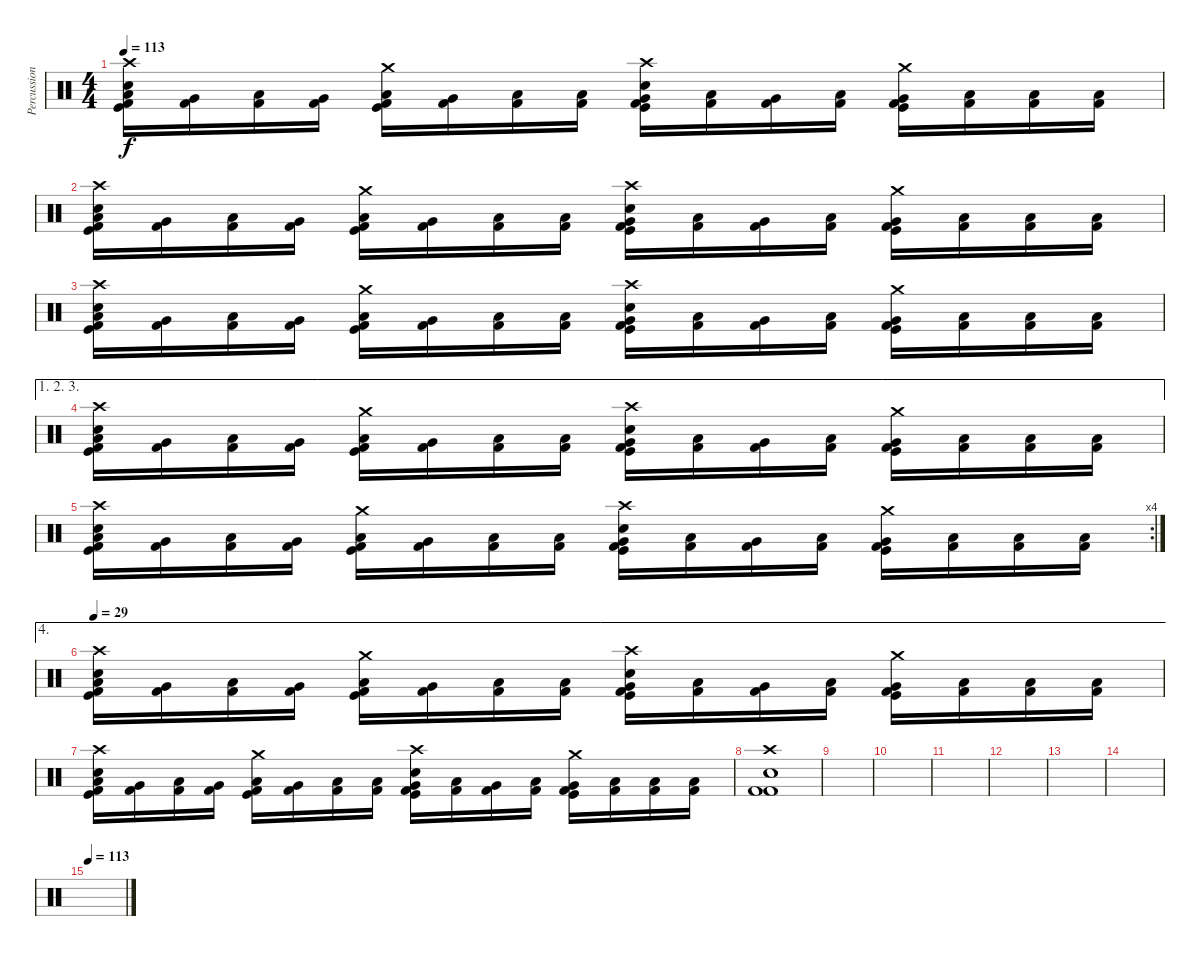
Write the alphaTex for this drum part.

\track ("Percussion" "Percussion") {instrument percussion}
\staff {score}
\articulation defaults
\ts (4 4)
\tempo 113
\clef neutral
\ks c
("Crash high (hit)" "Kick (hit)" "Snare (hit) 2" "Low Floor Tom (hit)" "Kick (hit) 2").16{dy f} ("Very Low Tom (hit)" "Kick (hit) 2").16 ("Low Tom (hit)" "Kick (hit) 2").16 ("Very Low Tom (hit)" "Kick (hit) 2").16 ("Crash medium (hit)" "Kick (hit)" "Low Floor Tom (hit)" "Kick (hit) 2").16 ("Very Low Tom (hit)" "Kick (hit) 2").16 ("Low Floor Tom (hit)" "Kick (hit) 2").16 ("Low Tom (hit)" "Kick (hit) 2").16 ("Crash high (hit)" "Kick (hit)" "Snare (hit) 2" "Very Low Tom (hit)" "Kick (hit) 2").16 ("Low Floor Tom (hit)" "Kick (hit) 2").16 ("Very Low Tom (hit)" "Kick (hit) 2").16 ("Low Floor Tom (hit)" "Kick (hit) 2").16 ("Crash medium (hit)" "Kick (hit)" "Very Low Tom (hit)" "Kick (hit) 2").16 ("Low Floor Tom (hit)" "Kick (hit) 2").16 ("Low Tom (hit)" "Kick (hit) 2").16 ("Low Floor Tom (hit)" "Kick (hit) 2").16 |
("Crash high (hit)" "Kick (hit)" "Snare (hit) 2" "Low Floor Tom (hit)" "Kick (hit) 2").16 ("Very Low Tom (hit)" "Kick (hit) 2").16 ("Low Tom (hit)" "Kick (hit) 2").16 ("Very Low Tom (hit)" "Kick (hit) 2").16 ("Crash medium (hit)" "Kick (hit)" "Low Floor Tom (hit)" "Kick (hit) 2").16 ("Very Low Tom (hit)" "Kick (hit) 2").16 ("Low Floor Tom (hit)" "Kick (hit) 2").16 ("Low Tom (hit)" "Kick (hit) 2").16 ("Crash high (hit)" "Kick (hit)" "Snare (hit) 2" "Very Low Tom (hit)" "Kick (hit) 2").16 ("Low Floor Tom (hit)" "Kick (hit) 2").16 ("Very Low Tom (hit)" "Kick (hit) 2").16 ("Low Floor Tom (hit)" "Kick (hit) 2").16 ("Crash medium (hit)" "Kick (hit)" "Very Low Tom (hit)" "Kick (hit) 2").16 ("Low Floor Tom (hit)" "Kick (hit) 2").16 ("Low Tom (hit)" "Kick (hit) 2").16 ("Low Floor Tom (hit)" "Kick (hit) 2").16 |
("Crash high (hit)" "Kick (hit)" "Snare (hit) 2" "Low Floor Tom (hit)" "Kick (hit) 2").16 ("Very Low Tom (hit)" "Kick (hit) 2").16 ("Low Tom (hit)" "Kick (hit) 2").16 ("Very Low Tom (hit)" "Kick (hit) 2").16 ("Crash medium (hit)" "Kick (hit)" "Low Floor Tom (hit)" "Kick (hit) 2").16 ("Very Low Tom (hit)" "Kick (hit) 2").16 ("Low Floor Tom (hit)" "Kick (hit) 2").16 ("Low Tom (hit)" "Kick (hit) 2").16 ("Crash high (hit)" "Kick (hit)" "Snare (hit) 2" "Very Low Tom (hit)" "Kick (hit) 2").16 ("Low Floor Tom (hit)" "Kick (hit) 2").16 ("Very Low Tom (hit)" "Kick (hit) 2").16 ("Low Floor Tom (hit)" "Kick (hit) 2").16 ("Crash medium (hit)" "Kick (hit)" "Very Low Tom (hit)" "Kick (hit) 2").16 ("Low Floor Tom (hit)" "Kick (hit) 2").16 ("Low Tom (hit)" "Kick (hit) 2").16 ("Low Floor Tom (hit)" "Kick (hit) 2").16 |
\ae (1 2 3)
("Crash high (hit)" "Kick (hit)" "Snare (hit) 2" "Low Floor Tom (hit)" "Kick (hit) 2").16 ("Very Low Tom (hit)" "Kick (hit) 2").16 ("Low Tom (hit)" "Kick (hit) 2").16 ("Very Low Tom (hit)" "Kick (hit) 2").16 ("Crash medium (hit)" "Kick (hit)" "Low Floor Tom (hit)" "Kick (hit) 2").16 ("Very Low Tom (hit)" "Kick (hit) 2").16 ("Low Floor Tom (hit)" "Kick (hit) 2").16 ("Low Tom (hit)" "Kick (hit) 2").16 ("Crash high (hit)" "Kick (hit)" "Snare (hit) 2" "Very Low Tom (hit)" "Kick (hit) 2").16 ("Low Floor Tom (hit)" "Kick (hit) 2").16 ("Very Low Tom (hit)" "Kick (hit) 2").16 ("Low Floor Tom (hit)" "Kick (hit) 2").16 ("Crash medium (hit)" "Kick (hit)" "Very Low Tom (hit)" "Kick (hit) 2").16 ("Low Floor Tom (hit)" "Kick (hit) 2").16 ("Low Tom (hit)" "Kick (hit) 2").16 ("Low Floor Tom (hit)" "Kick (hit) 2").16 |
\rc 4
("Crash high (hit)" "Kick (hit)" "Snare (hit) 2" "Low Floor Tom (hit)" "Kick (hit) 2").16 ("Very Low Tom (hit)" "Kick (hit) 2").16 ("Low Tom (hit)" "Kick (hit) 2").16 ("Very Low Tom (hit)" "Kick (hit) 2").16 ("Crash medium (hit)" "Kick (hit)" "Low Floor Tom (hit)" "Kick (hit) 2").16 ("Very Low Tom (hit)" "Kick (hit) 2").16 ("Low Floor Tom (hit)" "Kick (hit) 2").16 ("Low Tom (hit)" "Kick (hit) 2").16 ("Crash high (hit)" "Kick (hit)" "Snare (hit) 2" "Very Low Tom (hit)" "Kick (hit) 2").16 ("Low Floor Tom (hit)" "Kick (hit) 2").16 ("Very Low Tom (hit)" "Kick (hit) 2").16 ("Low Floor Tom (hit)" "Kick (hit) 2").16 ("Crash medium (hit)" "Kick (hit)" "Very Low Tom (hit)" "Kick (hit) 2").16 ("Low Floor Tom (hit)" "Kick (hit) 2").16 ("Low Tom (hit)" "Kick (hit) 2").16 ("Low Floor Tom (hit)" "Kick (hit) 2").16 |
\ae 4
\tempo 29
("Crash high (hit)" "Kick (hit)" "Snare (hit) 2" "Low Floor Tom (hit)" "Kick (hit) 2").16 ("Very Low Tom (hit)" "Kick (hit) 2").16 ("Low Tom (hit)" "Kick (hit) 2").16 ("Very Low Tom (hit)" "Kick (hit) 2").16 ("Crash medium (hit)" "Kick (hit)" "Low Floor Tom (hit)" "Kick (hit) 2").16 ("Very Low Tom (hit)" "Kick (hit) 2").16 ("Low Floor Tom (hit)" "Kick (hit) 2").16 ("Low Tom (hit)" "Kick (hit) 2").16 ("Crash high (hit)" "Kick (hit)" "Snare (hit) 2" "Very Low Tom (hit)" "Kick (hit) 2").16 ("Low Floor Tom (hit)" "Kick (hit) 2").16 ("Very Low Tom (hit)" "Kick (hit) 2").16 ("Low Floor Tom (hit)" "Kick (hit) 2").16 ("Crash medium (hit)" "Kick (hit)" "Very Low Tom (hit)" "Kick (hit) 2").16 ("Low Floor Tom (hit)" "Kick (hit) 2").16 ("Low Tom (hit)" "Kick (hit) 2").16 ("Low Floor Tom (hit)" "Kick (hit) 2").16 |
("Crash high (hit)" "Kick (hit)" "Snare (hit) 2" "Low Floor Tom (hit)" "Kick (hit) 2").16 ("Very Low Tom (hit)" "Kick (hit) 2").16 ("Low Tom (hit)" "Kick (hit) 2").16 ("Very Low Tom (hit)" "Kick (hit) 2").16 ("Crash medium (hit)" "Kick (hit)" "Low Floor Tom (hit)" "Kick (hit) 2").16 ("Very Low Tom (hit)" "Kick (hit) 2").16 ("Low Floor Tom (hit)" "Kick (hit) 2").16 ("Low Tom (hit)" "Kick (hit) 2").16 ("Crash high (hit)" "Kick (hit)" "Snare (hit) 2" "Very Low Tom (hit)" "Kick (hit) 2").16 ("Low Floor Tom (hit)" "Kick (hit) 2").16 ("Very Low Tom (hit)" "Kick (hit) 2").16 ("Low Floor Tom (hit)" "Kick (hit) 2").16 ("Crash medium (hit)" "Kick (hit)" "Very Low Tom (hit)" "Kick (hit) 2").16 ("Low Floor Tom (hit)" "Kick (hit) 2").16 ("Low Tom (hit)" "Kick (hit) 2").16 ("Low Floor Tom (hit)" "Kick (hit) 2").16 |
("Crash high (hit)" "Snare (hit) 2" "Kick (hit) 2" "Kick (hit) 2").1 |
|
|
|
|
|
|
\tempo 113
